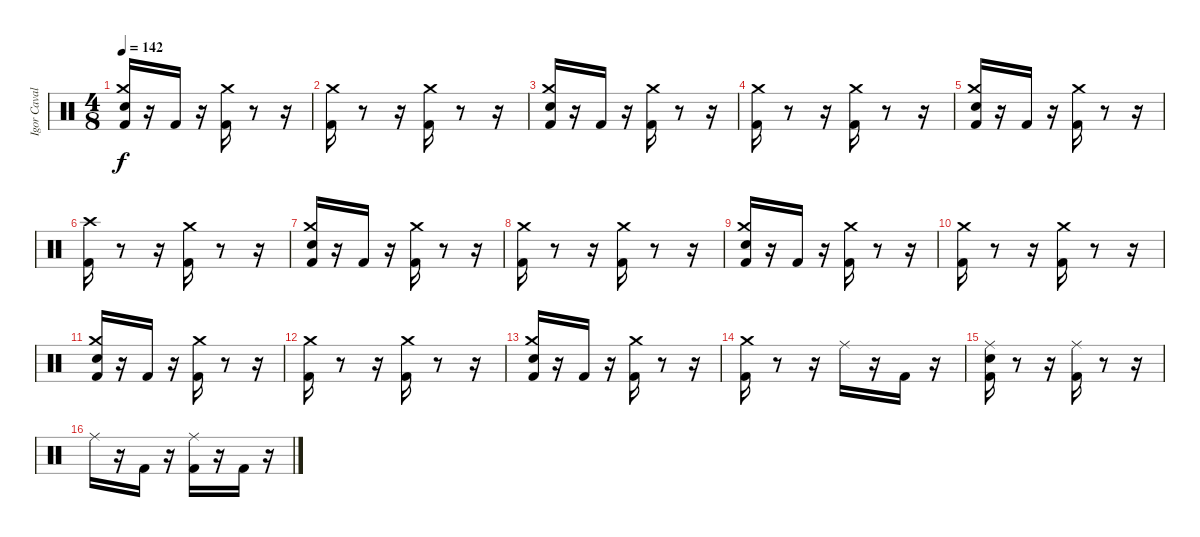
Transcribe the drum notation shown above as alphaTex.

\track ("Igor Cavalera" "Igor Caval") {instrument percussion}
\staff {score}
\articulation defaults
\ts (4 8)
\tempo 142
\clef neutral
\ks c
("Electric Snare (hit)" "Crash medium (hit)" "Kick (hit) 2").16{dy f} r.16 "Kick (hit) 2".16 r.16 ("Kick (hit) 2" "Crash medium (hit)").16 r.8 r.16 |
("Kick (hit) 2" "Crash medium (hit)").16 r.8 r.16 ("Kick (hit) 2" "Crash medium (hit)").16 r.8 r.16 |
("Electric Snare (hit)" "Crash medium (hit)" "Kick (hit) 2").16 r.16 "Kick (hit) 2".16 r.16 ("Kick (hit) 2" "Crash medium (hit)").16 r.8 r.16 |
("Kick (hit) 2" "Crash medium (hit)").16 r.8 r.16 ("Kick (hit) 2" "Crash medium (hit)").16 r.8 r.16 |
("Electric Snare (hit)" "Crash medium (hit)" "Kick (hit) 2").16 r.16 "Kick (hit) 2".16 r.16 ("Kick (hit) 2" "Crash medium (hit)").16 r.8 r.16 |
("Kick (hit) 2" "Crash high (hit)").16 r.8 r.16 ("Kick (hit) 2" "Crash medium (hit)").16 r.8 r.16 |
("Electric Snare (hit)" "Crash medium (hit)" "Kick (hit) 2").16 r.16 "Kick (hit) 2".16 r.16 ("Kick (hit) 2" "Crash medium (hit)").16 r.8 r.16 |
("Kick (hit) 2" "Crash medium (hit)").16 r.8 r.16 ("Kick (hit) 2" "Crash medium (hit)").16 r.8 r.16 |
("Electric Snare (hit)" "Crash medium (hit)" "Kick (hit) 2").16 r.16 "Kick (hit) 2".16 r.16 ("Kick (hit) 2" "Crash medium (hit)").16 r.8 r.16 |
("Kick (hit) 2" "Crash medium (hit)").16 r.8 r.16 ("Kick (hit) 2" "Crash medium (hit)").16 r.8 r.16 |
("Electric Snare (hit)" "Crash medium (hit)" "Kick (hit) 2").16 r.16 "Kick (hit) 2".16 r.16 ("Kick (hit) 2" "Crash medium (hit)").16 r.8 r.16 |
("Kick (hit) 2" "Crash medium (hit)").16 r.8 r.16 ("Kick (hit) 2" "Crash medium (hit)").16 r.8 r.16 |
("Electric Snare (hit)" "Crash medium (hit)" "Kick (hit) 2").16 r.16 "Kick (hit) 2".16 r.16 ("Kick (hit) 2" "Crash medium (hit)").16 r.8 r.16 |
("Kick (hit) 2" "Crash medium (hit)").16 r.8 r.16 "Ride (middle)".16 r.16 "Kick (hit) 2".16 r.16 |
("Electric Snare (hit)" "Ride (middle)" "Kick (hit) 2").16 r.8 r.16 ("Kick (hit) 2" "Ride (middle)").16 r.8 r.16 |
"Ride (middle)".16 r.16 "Kick (hit) 2".16 r.16 ("Ride (middle)" "Kick (hit) 2").16 r.16 "Kick (hit) 2".16 r.16
